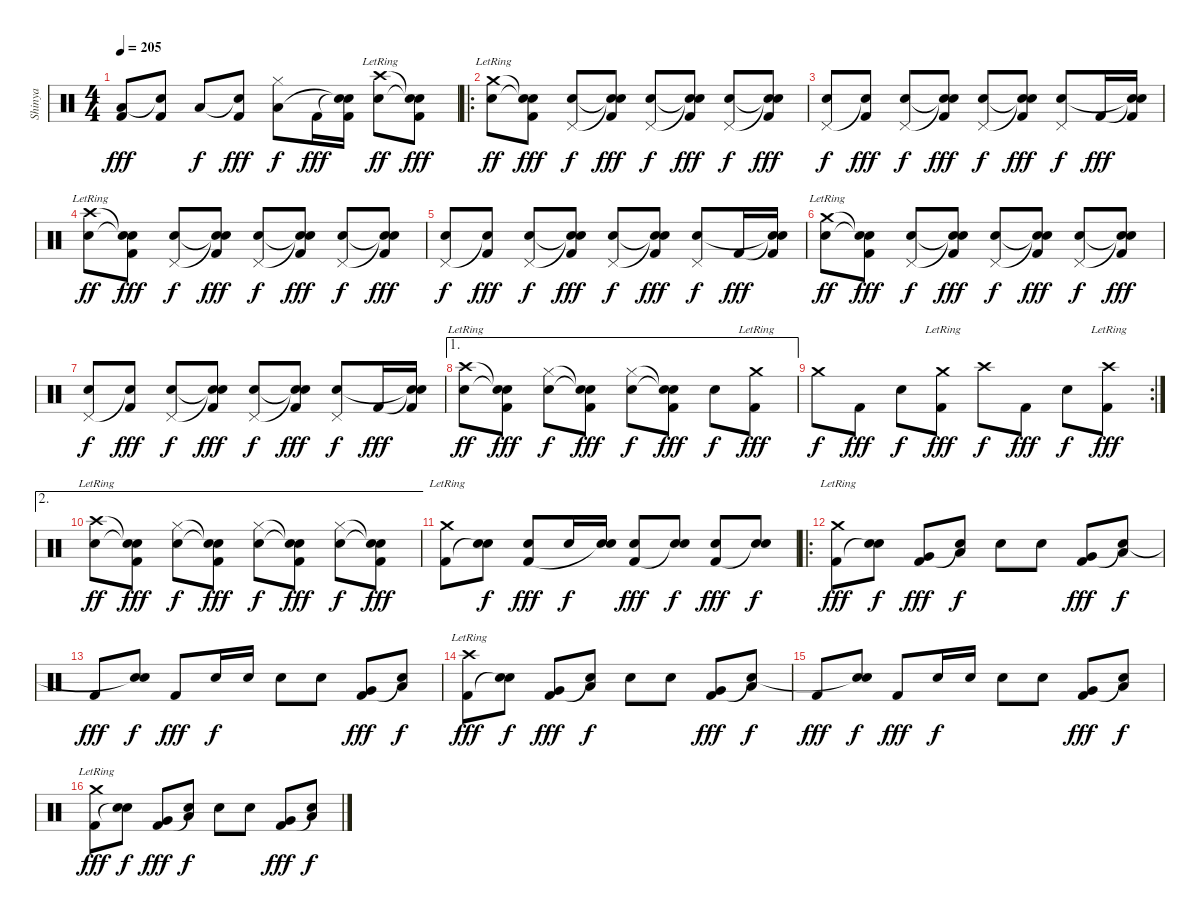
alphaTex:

\track ("Shinya" "Shinya") {instrument percussion}
\staff {score}
\articulation defaults
\ts (4 4)
\tempo 205
\clef neutral
\ks c
("Low Floor Tom (hit)" "Kick (hit) 2").8{dy fff} ("Snare (hit)"{t} "Kick (hit) 2").8 "Low Floor Tom (hit)".8{dy f} ("Snare (hit)"{t} "Kick (hit) 2").8{dy fff} ("Hi-Hat (closed)" "Low Floor Tom (hit)").8{dy f} "Kick (hit) 2".16{dy fff} ("Snare (hit)"{t} "Snare (hit)"{t} "Kick (hit) 2").16 ("Crash high (hit)"{lr} "Electric Snare (hit)").8{dy ff} ("Snare (hit)"{t} "Snare (hit)"{t} "Kick (hit) 2").8{dy fff} |
\ro
("Crash medium (hit)"{lr} "Electric Snare (hit)").8{dy ff} ("Snare (hit)"{t} "Snare (hit)"{t} "Kick (hit) 2").8{dy fff} ("Pedal Hi-Hat (hit)" "Electric Snare (hit)").8{dy f} ("Snare (hit)"{t} "Snare (hit)"{t} "Kick (hit) 2").8{dy fff} ("Pedal Hi-Hat (hit)" "Electric Snare (hit)").8{dy f} ("Snare (hit)"{t} "Snare (hit)"{t} "Kick (hit) 2").8{dy fff} ("Pedal Hi-Hat (hit)" "Electric Snare (hit)").8{dy f} ("Snare (hit)"{t} "Snare (hit)"{t} "Kick (hit) 2").8{dy fff} |
("Pedal Hi-Hat (hit)" "Electric Snare (hit)").8{dy f} ("Snare (hit)"{t} "Kick (hit) 2").8{dy fff} ("Pedal Hi-Hat (hit)" "Electric Snare (hit)").8{dy f} ("Snare (hit)"{t} "Snare (hit)"{t} "Kick (hit) 2").8{dy fff} ("Pedal Hi-Hat (hit)" "Electric Snare (hit)").8{dy f} ("Snare (hit)"{t} "Snare (hit)"{t} "Kick (hit) 2").8{dy fff} ("Pedal Hi-Hat (hit)" "Electric Snare (hit)").8{dy f} "Kick (hit) 2".16{dy fff} ("Snare (hit)"{t} "Snare (hit)"{t} "Kick (hit) 2").16 |
("Crash high (hit)"{lr} "Electric Snare (hit)").8{dy ff} ("Snare (hit)"{t} "Snare (hit)"{t} "Kick (hit) 2").8{dy fff} ("Pedal Hi-Hat (hit)" "Electric Snare (hit)").8{dy f} ("Snare (hit)"{t} "Snare (hit)"{t} "Kick (hit) 2").8{dy fff} ("Pedal Hi-Hat (hit)" "Electric Snare (hit)").8{dy f} ("Snare (hit)"{t} "Snare (hit)"{t} "Kick (hit) 2").8{dy fff} ("Pedal Hi-Hat (hit)" "Electric Snare (hit)").8{dy f} ("Snare (hit)"{t} "Snare (hit)"{t} "Kick (hit) 2").8{dy fff} |
("Pedal Hi-Hat (hit)" "Electric Snare (hit)").8{dy f} ("Snare (hit)"{t} "Kick (hit) 2").8{dy fff} ("Pedal Hi-Hat (hit)" "Electric Snare (hit)").8{dy f} ("Snare (hit)"{t} "Snare (hit)"{t} "Kick (hit) 2").8{dy fff} ("Pedal Hi-Hat (hit)" "Electric Snare (hit)").8{dy f} ("Snare (hit)"{t} "Snare (hit)"{t} "Kick (hit) 2").8{dy fff} ("Pedal Hi-Hat (hit)" "Electric Snare (hit)").8{dy f} "Kick (hit) 2".16{dy fff} ("Snare (hit)"{t} "Snare (hit)"{t} "Kick (hit) 2").16 |
("Crash medium (hit)"{lr} "Electric Snare (hit)").8{dy ff} ("Snare (hit)"{t} "Snare (hit)"{t} "Kick (hit) 2").8{dy fff} ("Pedal Hi-Hat (hit)" "Electric Snare (hit)").8{dy f} ("Snare (hit)"{t} "Snare (hit)"{t} "Kick (hit) 2").8{dy fff} ("Pedal Hi-Hat (hit)" "Electric Snare (hit)").8{dy f} ("Snare (hit)"{t} "Snare (hit)"{t} "Kick (hit) 2").8{dy fff} ("Pedal Hi-Hat (hit)" "Electric Snare (hit)").8{dy f} ("Snare (hit)"{t} "Snare (hit)"{t} "Kick (hit) 2").8{dy fff} |
("Pedal Hi-Hat (hit)" "Electric Snare (hit)").8{dy f} ("Snare (hit)"{t} "Kick (hit) 2").8{dy fff} ("Pedal Hi-Hat (hit)" "Electric Snare (hit)").8{dy f} ("Snare (hit)"{t} "Snare (hit)"{t} "Kick (hit) 2").8{dy fff} ("Pedal Hi-Hat (hit)" "Electric Snare (hit)").8{dy f} ("Snare (hit)"{t} "Snare (hit)"{t} "Kick (hit) 2").8{dy fff} ("Pedal Hi-Hat (hit)" "Electric Snare (hit)").8{dy f} "Kick (hit) 2".16{dy fff} ("Snare (hit)"{t} "Snare (hit)"{t} "Kick (hit) 2").16 |
\ae 1
("Crash high (hit)"{lr} "Electric Snare (hit)").8{dy ff} ("Snare (hit)"{t} "Snare (hit)"{t} "Kick (hit) 2").8{dy fff} ("Hi-Hat (closed)" "Electric Snare (hit)").8{dy f} ("Snare (hit)"{t} "Electric Snare (hit)"{t} "Kick (hit) 2").8{dy fff} ("Hi-Hat (closed)" "Electric Snare (hit)").8{dy f} ("Snare (hit)"{t} "Snare (hit)"{t} "Kick (hit) 2").8{dy fff} "Electric Snare (hit)".8{dy f} ("Crash medium (hit)"{lr} "Kick (hit) 2").8{dy fff} |
\rc 2 "Crash medium (hit)".8{dy f} "Kick (hit) 2".8{dy fff} "Electric Snare (hit)".8{dy f}
("Crash medium (hit)"{lr} "Kick (hit) 2").8{dy fff} "Crash high (hit)".8{dy f} "Kick (hit) 2".8{dy fff} "Electric Snare (hit)".8{dy f} ("Crash high (hit)"{lr} "Kick (hit) 2").8{dy fff} |
\ae 2
("Crash high (hit)"{lr} "Electric Snare (hit)").8{dy ff} ("Snare (hit)"{t} "Snare (hit)"{t} "Kick (hit) 2").8{dy fff} ("Hi-Hat (closed)" "Electric Snare (hit)").8{dy f} ("Snare (hit)"{t} "Electric Snare (hit)"{t} "Kick (hit) 2").8{dy fff} ("Hi-Hat (closed)" "Electric Snare (hit)").8{dy f} ("Snare (hit)"{t} "Snare (hit)"{t} "Kick (hit) 2").8{dy fff} ("Hi-Hat (closed)" "Electric Snare (hit)").8{dy f} ("Snare (hit)"{t} "Snare (hit)"{t} "Kick (hit) 2").8{dy fff} |
("Crash medium (hit)"{lr} "Kick (hit) 2").8 ("Electric Snare (hit)" "Snare (hit)"{t}).8{dy f} ("Electric Snare (hit)" "Kick (hit) 2").8{dy fff} "Electric Snare (hit)".16{dy f} ("Electric Snare (hit)" "Snare (hit)"{t}).16 ("Electric Snare (hit)" "Kick (hit) 2").8{dy fff} ("Electric Snare (hit)" "Snare (hit)"{t}).8{dy f} ("Electric Snare (hit)" "Kick (hit) 2").8{dy fff} ("Electric Snare (hit)" "Snare (hit)"{t}).8{dy f} |
\ro
("Crash medium (hit)"{lr} "Kick (hit) 2").8{dy fff} ("Electric Snare (hit)" "Snare (hit)"{t}).8{dy f} ("Very Low Tom (hit)" "Kick (hit) 2").8{dy fff} ("Low Floor Tom (hit)" "Snare (hit)"{t}).8{dy f} "Electric Snare (hit)".8 "Electric Snare (hit)".8 ("Very Low Tom (hit)" "Kick (hit) 2").8{dy fff} ("Low Floor Tom (hit)" "Snare (hit)"{t}).8{dy f} |
"Kick (hit) 2".8{dy fff} ("Electric Snare (hit)" "Snare (hit)"{t}).8{dy f} "Kick (hit) 2".8{dy fff} "Electric Snare (hit)".16{dy f} "Electric Snare (hit)".16 "Electric Snare (hit)".8 "Electric Snare (hit)".8 ("Very Low Tom (hit)" "Kick (hit) 2").8{dy fff} ("Low Floor Tom (hit)" "Snare (hit)"{t}).8{dy f} |
("Crash high (hit)"{lr} "Kick (hit) 2").8{dy fff} ("Electric Snare (hit)" "Snare (hit)"{t}).8{dy f} ("Very Low Tom (hit)" "Kick (hit) 2").8{dy fff} ("Low Floor Tom (hit)" "Snare (hit)"{t}).8{dy f} "Electric Snare (hit)".8 "Electric Snare (hit)".8 ("Very Low Tom (hit)" "Kick (hit) 2").8{dy fff} ("Low Floor Tom (hit)" "Snare (hit)"{t}).8{dy f} |
"Kick (hit) 2".8{dy fff} ("Electric Snare (hit)" "Snare (hit)"{t}).8{dy f} "Kick (hit) 2".8{dy fff} "Electric Snare (hit)".16{dy f} "Electric Snare (hit)".16 "Electric Snare (hit)".8 "Electric Snare (hit)".8 ("Very Low Tom (hit)" "Kick (hit) 2").8{dy fff} ("Low Floor Tom (hit)" "Snare (hit)"{t}).8{dy f} |
("Crash medium (hit)"{lr} "Kick (hit) 2").8{dy fff} ("Electric Snare (hit)" "Snare (hit)"{t}).8{dy f} ("Very Low Tom (hit)" "Kick (hit) 2").8{dy fff} ("Low Floor Tom (hit)" "Snare (hit)"{t}).8{dy f} "Electric Snare (hit)".8 "Electric Snare (hit)".8 ("Very Low Tom (hit)" "Kick (hit) 2").8{dy fff} ("Low Floor Tom (hit)" "Snare (hit)"{t}).8{dy f}
